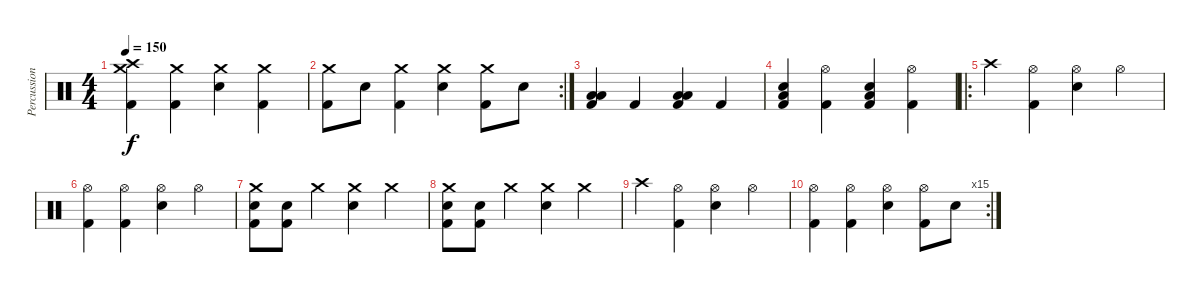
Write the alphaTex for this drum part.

\track ("Percussioni" "Percussion") {instrument percussion}
\staff {score}
\articulation defaults
\ts (4 4)
\tempo 150
\clef neutral
\ks c
("Crash high (hit)" "Crash medium (hit)" "Kick (hit) 2").4{dy f} ("Crash medium (hit)" "Kick (hit) 2").4 ("Crash medium (hit)" "Snare (hit) 2").4 ("Crash medium (hit)" "Kick (hit) 2").4 |
\rc 2
("Crash medium (hit)" "Kick (hit) 2").8 "Snare (hit) 2".8 ("Crash medium (hit)" "Kick (hit) 2").4 ("Crash medium (hit)" "Snare (hit) 2").4 ("Crash medium (hit)" "Kick (hit) 2").8 "Snare (hit) 2".8 |
("Low Tom (hit)" "Kick (hit) 2" "Low Floor Tom (hit)").4 "Kick (hit) 2".4 ("Low Tom (hit)" "Kick (hit) 2" "Low Floor Tom (hit)").4 "Kick (hit) 2".4 |
("Low Tom (hit)" "Kick (hit) 2" "Snare (hit) 2").4 ("Hi-Hat (open)" "Kick (hit) 2").4 ("Low Tom (hit)" "Kick (hit) 2" "Snare (hit) 2").4 ("Hi-Hat (open)" "Kick (hit) 2").4 |
\ro "Crash high (hit)".4
("Hi-Hat (open)" "Kick (hit) 2").4 ("Hi-Hat (open)" "Snare (hit) 2").4 "Hi-Hat (open)".4 |
("Hi-Hat (open)" "Kick (hit) 2").4 ("Hi-Hat (open)" "Kick (hit) 2").4 ("Hi-Hat (open)" "Snare (hit) 2").4 "Hi-Hat (open)".4 |
("Crash medium (hit)" "Kick (hit) 2" "Snare (hit) 2").8 ("Kick (hit) 2" "Snare (hit) 2").8 "Crash medium (hit)".4 ("Crash medium (hit)" "Snare (hit) 2").4 "Crash medium (hit)".4 |
("Crash medium (hit)" "Kick (hit) 2" "Snare (hit) 2").8 ("Kick (hit) 2" "Snare (hit) 2").8 "Crash medium (hit)".4 ("Crash medium (hit)" "Snare (hit) 2").4 "Crash medium (hit)".4 |
"Crash high (hit)".4 ("Hi-Hat (open)" "Kick (hit) 2").4 ("Hi-Hat (open)" "Snare (hit) 2").4 "Hi-Hat (open)".4 |
\rc 15
("Hi-Hat (open)" "Kick (hit) 2").4 ("Hi-Hat (open)" "Kick (hit) 2").4 ("Hi-Hat (open)" "Snare (hit) 2").4 ("Hi-Hat (open)" "Kick (hit) 2").8 "Snare (hit) 2".8
